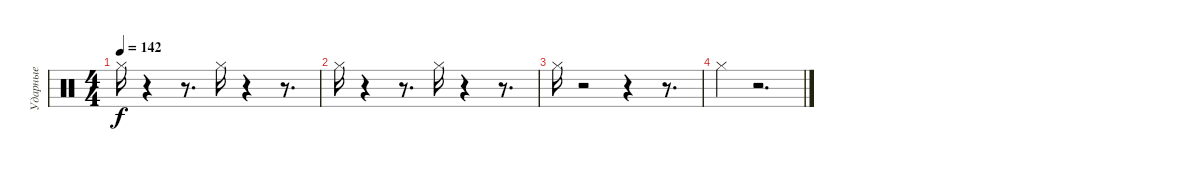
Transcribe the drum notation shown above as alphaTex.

\track ("Ударные" "Ударные") {instrument percussion}
\staff {score}
\articulation defaults
\ts (4 4)
\tempo 142
\clef neutral
\ks c "Hi-Hat (closed)".16{dy f}
r.4 r.8{d} "Hi-Hat (closed)".16 r.4 r.8{d} |
"Hi-Hat (closed)".16 r.4 r.8{d} "Hi-Hat (closed)".16 r.4 r.8{d} |
"Hi-Hat (closed)".16 r.2 r.4 r.8{d} |
"Hi-Hat (closed)".4 r.2{d}
